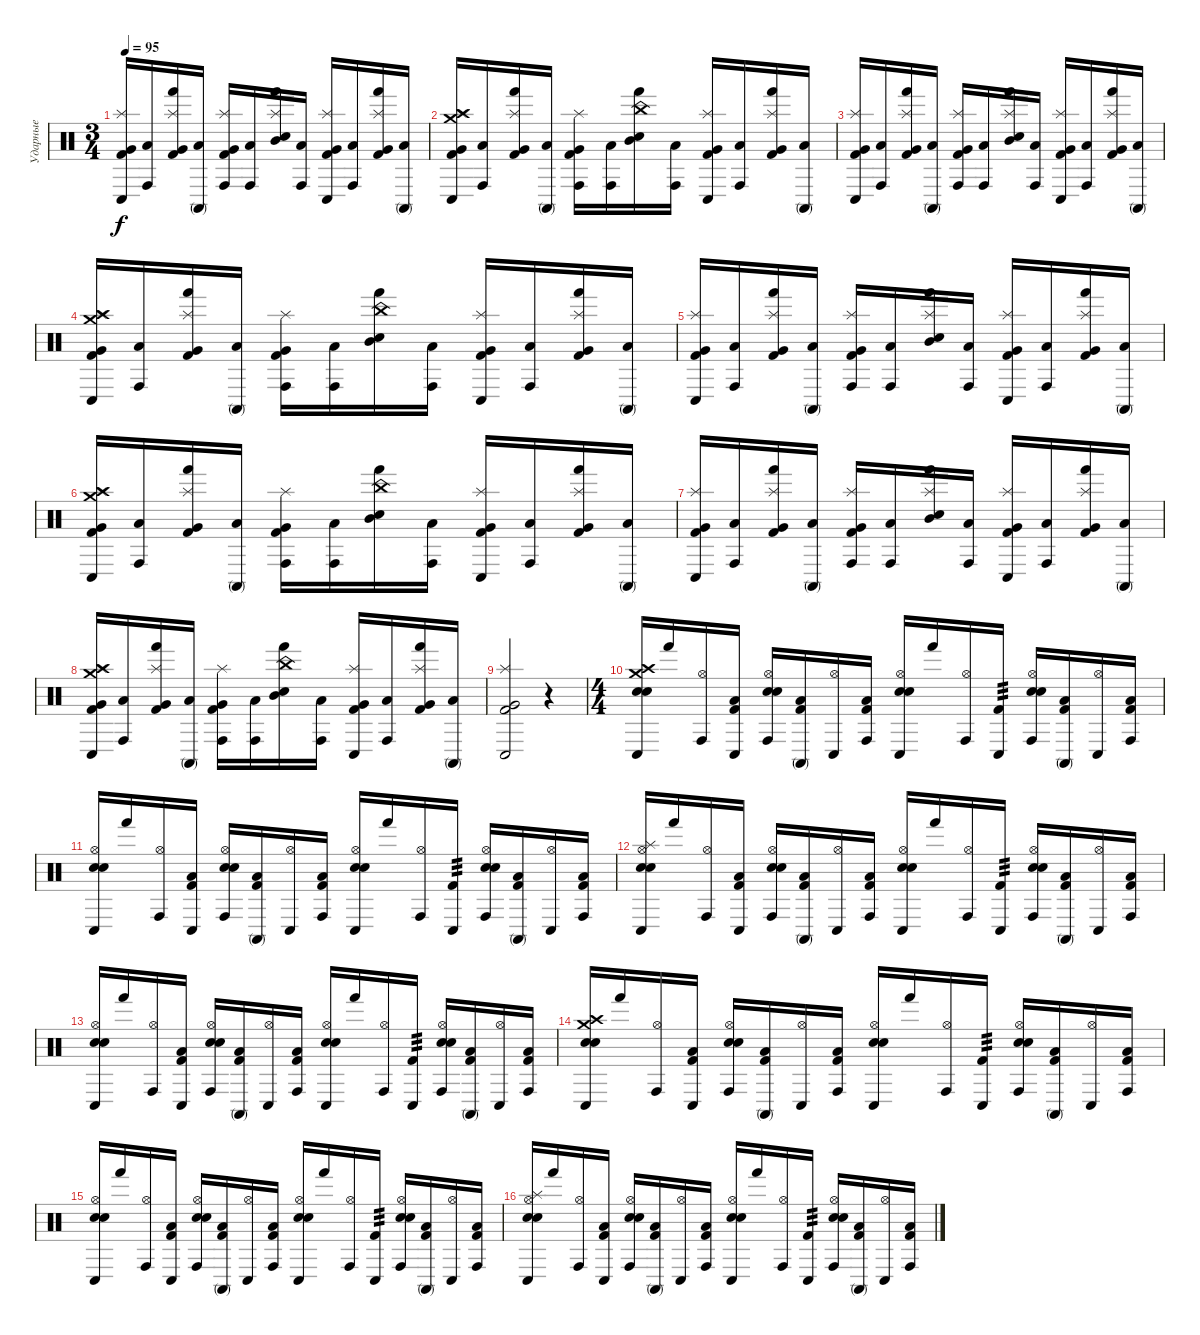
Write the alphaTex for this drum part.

\track ("Ударные" "Ударные") {instrument percussion}
\staff
\articulation defaults
\ts (3 4)
\tempo 95
\clef neutral
\ks c
("Conga low (hit)" "Splash (hit)" "Very Low Tom (hit)" "Kick (hit) 2").16{dy f} ("Conga high (hit)" "Low Tom (hit)").16 ("Hand (hit)" "Splash (hit)" "Very Low Tom (hit)" "Kick (hit) 2").16 ("Conga high (mute)" "Low Floor Tom (hit)").16 ("Conga high (hit)" "Splash (hit)" "Very Low Tom (hit)" "Kick (hit) 2").16 ("Conga high (hit)" "Low Tom (hit)").16 ("Hand (hit)" "Splash (hit)" "Mid Tom (hit)" "Electric Snare (hit)").16 ("Conga high (hit)" "Low Tom (hit)").16 ("Conga low (hit)" "Splash (hit)" "Very Low Tom (hit)" "Kick (hit) 2").16 ("Conga high (hit)" "Low Tom (hit)").16 ("Hand (hit)" "Splash (hit)" "Very Low Tom (hit)" "Kick (hit) 2").16 ("Conga high (mute)" "Low Floor Tom (hit)").16 |
("Crash medium (hit)" "Crash high (hit)" "Conga low (hit)" "Splash (hit)" "Very Low Tom (hit)" "Kick (hit) 2").16 ("Conga high (hit)" "Low Tom (hit)").16 ("Hand (hit)" "Splash (hit)" "Very Low Tom (hit)" "Kick (hit) 2").16 ("Conga high (mute)" "Low Floor Tom (hit)").16 ("Conga high (hit)" "Splash (hit)" "Very Low Tom (hit)" "Kick (hit) 2").16 ("Conga high (hit)" "Low Tom (hit)").16 ("China (hit)" "Hand (hit)" "Mid Tom (hit)" "Electric Snare (hit)").16 ("Conga high (hit)" "Low Tom (hit)").16 ("Conga low (hit)" "Splash (hit)" "Very Low Tom (hit)" "Kick (hit) 2").16 ("Conga high (hit)" "Low Tom (hit)").16 ("Hand (hit)" "Splash (hit)" "Very Low Tom (hit)" "Kick (hit) 2").16 ("Conga high (mute)" "Low Floor Tom (hit)").16 |
("Conga low (hit)" "Splash (hit)" "Very Low Tom (hit)" "Kick (hit) 2").16 ("Conga high (hit)" "Low Tom (hit)").16 ("Hand (hit)" "Splash (hit)" "Very Low Tom (hit)" "Kick (hit) 2").16 ("Conga high (mute)" "Low Floor Tom (hit)").16 ("Conga high (hit)" "Splash (hit)" "Very Low Tom (hit)" "Kick (hit) 2").16 ("Conga high (hit)" "Low Tom (hit)").16 ("Hand (hit)" "Splash (hit)" "Mid Tom (hit)" "Electric Snare (hit)").16 ("Conga high (hit)" "Low Tom (hit)").16 ("Conga low (hit)" "Splash (hit)" "Very Low Tom (hit)" "Kick (hit) 2").16 ("Conga high (hit)" "Low Tom (hit)").16 ("Hand (hit)" "Splash (hit)" "Very Low Tom (hit)" "Kick (hit) 2").16 ("Conga high (mute)" "Low Floor Tom (hit)").16 |
("Crash medium (hit)" "Crash high (hit)" "Conga low (hit)" "Splash (hit)" "Very Low Tom (hit)" "Kick (hit) 2").16 ("Conga high (hit)" "Low Tom (hit)").16 ("Hand (hit)" "Splash (hit)" "Very Low Tom (hit)" "Kick (hit) 2").16 ("Conga high (mute)" "Low Floor Tom (hit)").16 ("Conga high (hit)" "Splash (hit)" "Very Low Tom (hit)" "Kick (hit) 2").16 ("Conga high (hit)" "Low Tom (hit)").16 ("China (hit)" "Hand (hit)" "Mid Tom (hit)" "Electric Snare (hit)").16 ("Conga high (hit)" "Low Tom (hit)").16 ("Conga low (hit)" "Splash (hit)" "Very Low Tom (hit)" "Kick (hit) 2").16 ("Conga high (hit)" "Low Tom (hit)").16 ("Hand (hit)" "Splash (hit)" "Very Low Tom (hit)" "Kick (hit) 2").16 ("Conga high (mute)" "Low Floor Tom (hit)").16 |
("Conga low (hit)" "Splash (hit)" "Very Low Tom (hit)" "Kick (hit) 2").16 ("Conga high (hit)" "Low Tom (hit)").16 ("Hand (hit)" "Splash (hit)" "Very Low Tom (hit)" "Kick (hit) 2").16 ("Conga high (mute)" "Low Floor Tom (hit)").16 ("Conga high (hit)" "Splash (hit)" "Very Low Tom (hit)" "Kick (hit) 2").16 ("Conga high (hit)" "Low Tom (hit)").16 ("Hand (hit)" "Splash (hit)" "Mid Tom (hit)" "Electric Snare (hit)").16 ("Conga high (hit)" "Low Tom (hit)").16 ("Conga low (hit)" "Splash (hit)" "Very Low Tom (hit)" "Kick (hit) 2").16 ("Conga high (hit)" "Low Tom (hit)").16 ("Hand (hit)" "Splash (hit)" "Very Low Tom (hit)" "Kick (hit) 2").16 ("Conga high (mute)" "Low Floor Tom (hit)").16 |
("Crash medium (hit)" "Crash high (hit)" "Conga low (hit)" "Splash (hit)" "Very Low Tom (hit)" "Kick (hit) 2").16 ("Conga high (hit)" "Low Tom (hit)").16 ("Hand (hit)" "Splash (hit)" "Very Low Tom (hit)" "Kick (hit) 2").16 ("Conga high (mute)" "Low Floor Tom (hit)").16 ("Conga high (hit)" "Splash (hit)" "Very Low Tom (hit)" "Kick (hit) 2").16 ("Conga high (hit)" "Low Tom (hit)").16 ("China (hit)" "Hand (hit)" "Mid Tom (hit)" "Electric Snare (hit)").16 ("Conga high (hit)" "Low Tom (hit)").16 ("Conga low (hit)" "Splash (hit)" "Very Low Tom (hit)" "Kick (hit) 2").16 ("Conga high (hit)" "Low Tom (hit)").16 ("Hand (hit)" "Splash (hit)" "Very Low Tom (hit)" "Kick (hit) 2").16 ("Conga high (mute)" "Low Floor Tom (hit)").16 |
("Conga low (hit)" "Splash (hit)" "Very Low Tom (hit)" "Kick (hit) 2").16 ("Conga high (hit)" "Low Tom (hit)").16 ("Hand (hit)" "Splash (hit)" "Very Low Tom (hit)" "Kick (hit) 2").16 ("Conga high (mute)" "Low Floor Tom (hit)").16 ("Conga high (hit)" "Splash (hit)" "Very Low Tom (hit)" "Kick (hit) 2").16 ("Conga high (hit)" "Low Tom (hit)").16 ("Hand (hit)" "Splash (hit)" "Mid Tom (hit)" "Electric Snare (hit)").16 ("Conga high (hit)" "Low Tom (hit)").16 ("Conga low (hit)" "Splash (hit)" "Very Low Tom (hit)" "Kick (hit) 2").16 ("Conga high (hit)" "Low Tom (hit)").16 ("Hand (hit)" "Splash (hit)" "Very Low Tom (hit)" "Kick (hit) 2").16 ("Conga high (mute)" "Low Floor Tom (hit)").16 |
("Crash medium (hit)" "Crash high (hit)" "Conga low (hit)" "Splash (hit)" "Very Low Tom (hit)" "Kick (hit) 2").16 ("Conga high (hit)" "Low Tom (hit)").16 ("Hand (hit)" "Splash (hit)" "Very Low Tom (hit)" "Kick (hit) 2").16 ("Conga high (mute)" "Low Floor Tom (hit)").16 ("Conga high (hit)" "Splash (hit)" "Very Low Tom (hit)" "Kick (hit) 2").16 ("Conga high (hit)" "Low Tom (hit)").16 ("China (hit)" "Hand (hit)" "Mid Tom (hit)" "Electric Snare (hit)").16 ("Conga high (hit)" "Low Tom (hit)").16 ("Conga low (hit)" "Splash (hit)" "Very Low Tom (hit)" "Kick (hit) 2").16 ("Conga high (hit)" "Low Tom (hit)").16 ("Hand (hit)" "Splash (hit)" "Very Low Tom (hit)" "Kick (hit) 2").16 ("Conga high (mute)" "Low Floor Tom (hit)").16 |
("Conga low (hit)" "Splash (hit)" "Very Low Tom (hit)" "Kick (hit) 2").2 r.4 |
\ts (4 4)
("Crash medium (hit)" "Crash high (hit)" "Conga low (hit)" "Snare (hit) 2" "Electric Snare (hit)").16 "Hand (hit)".16 ("Hi-Hat (open)" "Conga high (hit)").16 ("Conga low (hit)" "Low Floor Tom (hit)" "Kick (hit) 2").16 ("Hi-Hat (open)" "Conga high (hit)" "Snare (hit) 2" "Electric Snare (hit)").16 ("Conga high (mute)" "Low Floor Tom (hit)" "Kick (hit) 2").16 ("Hi-Hat (open)" "Conga low (hit)").16 ("Conga high (hit)" "Low Floor Tom (hit)" "Kick (hit) 2").16 ("Hi-Hat (open)" "Conga low (hit)" "Snare (hit) 2" "Electric Snare (hit)").16 "Hand (hit)".16 ("Hi-Hat (open)" "Conga high (hit)").16 ("Conga low (hit)" "Kick (hit) 2").16{tp 3} ("Hi-Hat (open)" "Conga high (hit)" "Snare (hit) 2" "Electric Snare (hit)").16 ("Conga high (mute)" "Low Floor Tom (hit)" "Kick (hit) 2").16 ("Hi-Hat (open)" "Conga low (hit)").16 ("Conga high (hit)" "Low Floor Tom (hit)" "Kick (hit) 2").16 |
("Hi-Hat (open)" "Conga low (hit)" "Snare (hit) 2" "Electric Snare (hit)").16 "Hand (hit)".16 ("Hi-Hat (open)" "Conga high (hit)").16 ("Conga low (hit)" "Low Floor Tom (hit)" "Kick (hit) 2").16 ("Hi-Hat (open)" "Conga high (hit)" "Snare (hit) 2" "Electric Snare (hit)").16 ("Conga high (mute)" "Low Floor Tom (hit)" "Kick (hit) 2").16 ("Hi-Hat (open)" "Conga low (hit)").16 ("Conga high (hit)" "Low Floor Tom (hit)" "Kick (hit) 2").16 ("Hi-Hat (open)" "Conga low (hit)" "Snare (hit) 2" "Electric Snare (hit)").16 "Hand (hit)".16 ("Hi-Hat (open)" "Conga high (hit)").16 ("Conga low (hit)" "Kick (hit) 2").16{tp 3} ("Hi-Hat (open)" "Conga high (hit)" "Snare (hit) 2" "Electric Snare (hit)").16 ("Conga high (mute)" "Low Floor Tom (hit)" "Kick (hit) 2").16 ("Hi-Hat (open)" "Conga low (hit)").16 ("Conga high (hit)" "Low Floor Tom (hit)" "Kick (hit) 2").16 |
("Splash (hit)" "Hi-Hat (open)" "Conga low (hit)" "Snare (hit) 2" "Electric Snare (hit)").16 "Hand (hit)".16 ("Hi-Hat (open)" "Conga high (hit)").16 ("Conga low (hit)" "Low Floor Tom (hit)" "Kick (hit) 2").16 ("Hi-Hat (open)" "Conga high (hit)" "Snare (hit) 2" "Electric Snare (hit)").16 ("Conga high (mute)" "Low Floor Tom (hit)" "Kick (hit) 2").16 ("Hi-Hat (open)" "Conga low (hit)").16 ("Conga high (hit)" "Low Floor Tom (hit)" "Kick (hit) 2").16 ("Hi-Hat (open)" "Conga low (hit)" "Snare (hit) 2" "Electric Snare (hit)").16 "Hand (hit)".16 ("Hi-Hat (open)" "Conga high (hit)").16 ("Conga low (hit)" "Kick (hit) 2").16{tp 3} ("Hi-Hat (open)" "Conga high (hit)" "Snare (hit) 2" "Electric Snare (hit)").16 ("Conga high (mute)" "Low Floor Tom (hit)" "Kick (hit) 2").16 ("Hi-Hat (open)" "Conga low (hit)").16 ("Conga high (hit)" "Low Floor Tom (hit)" "Kick (hit) 2").16 |
("Hi-Hat (open)" "Conga low (hit)" "Snare (hit) 2" "Electric Snare (hit)").16 "Hand (hit)".16 ("Hi-Hat (open)" "Conga high (hit)").16 ("Conga low (hit)" "Low Floor Tom (hit)" "Kick (hit) 2").16 ("Hi-Hat (open)" "Conga high (hit)" "Snare (hit) 2" "Electric Snare (hit)").16 ("Conga high (mute)" "Low Floor Tom (hit)" "Kick (hit) 2").16 ("Hi-Hat (open)" "Conga low (hit)").16 ("Conga high (hit)" "Low Floor Tom (hit)" "Kick (hit) 2").16 ("Hi-Hat (open)" "Conga low (hit)" "Snare (hit) 2" "Electric Snare (hit)").16 "Hand (hit)".16 ("Hi-Hat (open)" "Conga high (hit)").16 ("Conga low (hit)" "Kick (hit) 2").16{tp 3} ("Hi-Hat (open)" "Conga high (hit)" "Snare (hit) 2" "Electric Snare (hit)").16 ("Conga high (mute)" "Low Floor Tom (hit)" "Kick (hit) 2").16 ("Hi-Hat (open)" "Conga low (hit)").16 ("Conga high (hit)" "Low Floor Tom (hit)" "Kick (hit) 2").16 |
("Crash medium (hit)" "Crash high (hit)" "Conga low (hit)" "Snare (hit) 2" "Electric Snare (hit)").16 "Hand (hit)".16 ("Hi-Hat (open)" "Conga high (hit)").16 ("Conga low (hit)" "Low Floor Tom (hit)" "Kick (hit) 2").16 ("Hi-Hat (open)" "Conga high (hit)" "Snare (hit) 2" "Electric Snare (hit)").16 ("Conga high (mute)" "Low Floor Tom (hit)" "Kick (hit) 2").16 ("Hi-Hat (open)" "Conga low (hit)").16 ("Conga high (hit)" "Low Floor Tom (hit)" "Kick (hit) 2").16 ("Hi-Hat (open)" "Conga low (hit)" "Snare (hit) 2" "Electric Snare (hit)").16 "Hand (hit)".16 ("Hi-Hat (open)" "Conga high (hit)").16 ("Conga low (hit)" "Kick (hit) 2").16{tp 3} ("Hi-Hat (open)" "Conga high (hit)" "Snare (hit) 2" "Electric Snare (hit)").16 ("Conga high (mute)" "Low Floor Tom (hit)" "Kick (hit) 2").16 ("Hi-Hat (open)" "Conga low (hit)").16 ("Conga high (hit)" "Low Floor Tom (hit)" "Kick (hit) 2").16 |
("Hi-Hat (open)" "Conga low (hit)" "Snare (hit) 2" "Electric Snare (hit)").16 "Hand (hit)".16 ("Hi-Hat (open)" "Conga high (hit)").16 ("Conga low (hit)" "Low Floor Tom (hit)" "Kick (hit) 2").16 ("Hi-Hat (open)" "Conga high (hit)" "Snare (hit) 2" "Electric Snare (hit)").16 ("Conga high (mute)" "Low Floor Tom (hit)" "Kick (hit) 2").16 ("Hi-Hat (open)" "Conga low (hit)").16 ("Conga high (hit)" "Low Floor Tom (hit)" "Kick (hit) 2").16 ("Hi-Hat (open)" "Conga low (hit)" "Snare (hit) 2" "Electric Snare (hit)").16 "Hand (hit)".16 ("Hi-Hat (open)" "Conga high (hit)").16 ("Conga low (hit)" "Kick (hit) 2").16{tp 3} ("Hi-Hat (open)" "Conga high (hit)" "Snare (hit) 2" "Electric Snare (hit)").16 ("Conga high (mute)" "Low Floor Tom (hit)" "Kick (hit) 2").16 ("Hi-Hat (open)" "Conga low (hit)").16 ("Conga high (hit)" "Low Floor Tom (hit)" "Kick (hit) 2").16 |
("Splash (hit)" "Hi-Hat (open)" "Conga low (hit)" "Snare (hit) 2" "Electric Snare (hit)").16 "Hand (hit)".16 ("Hi-Hat (open)" "Conga high (hit)").16 ("Conga low (hit)" "Low Floor Tom (hit)" "Kick (hit) 2").16 ("Hi-Hat (open)" "Conga high (hit)" "Snare (hit) 2" "Electric Snare (hit)").16 ("Conga high (mute)" "Low Floor Tom (hit)" "Kick (hit) 2").16 ("Hi-Hat (open)" "Conga low (hit)").16 ("Conga high (hit)" "Low Floor Tom (hit)" "Kick (hit) 2").16 ("Hi-Hat (open)" "Conga low (hit)" "Snare (hit) 2" "Electric Snare (hit)").16 "Hand (hit)".16 ("Hi-Hat (open)" "Conga high (hit)").16 ("Conga low (hit)" "Kick (hit) 2").16{tp 3} ("Hi-Hat (open)" "Conga high (hit)" "Snare (hit) 2" "Electric Snare (hit)").16 ("Conga high (mute)" "Low Floor Tom (hit)" "Kick (hit) 2").16 ("Hi-Hat (open)" "Conga low (hit)").16 ("Conga high (hit)" "Low Floor Tom (hit)" "Kick (hit) 2").16
